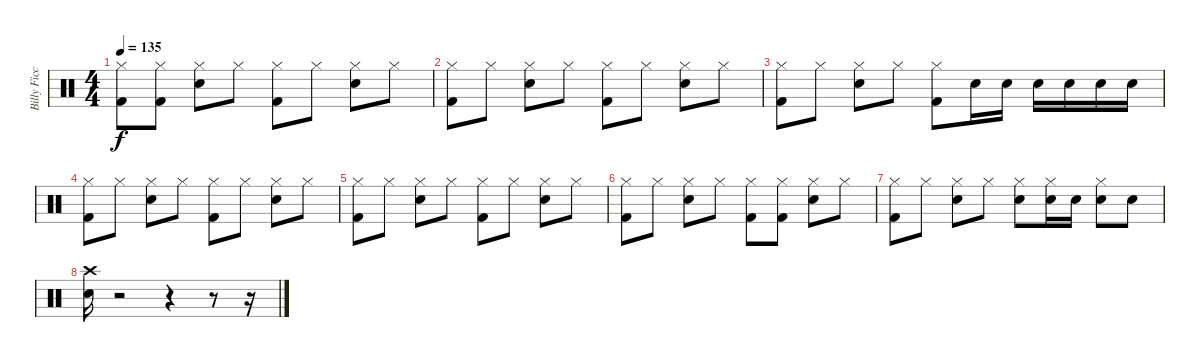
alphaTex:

\track ("Billy Ficca" "Billy Ficc") {instrument percussion}
\staff {score}
\articulation defaults
\ts (4 4)
\tempo 135
\clef neutral
\ks c
("Kick (hit) 2" "Hi-Hat (closed)").8{dy f} ("Hi-Hat (closed)" "Kick (hit) 2").8 ("Electric Snare (hit)" "Hi-Hat (closed)").8 "Hi-Hat (closed)".8 ("Kick (hit) 2" "Hi-Hat (closed)").8 "Hi-Hat (closed)".8 ("Electric Snare (hit)" "Hi-Hat (closed)").8 "Hi-Hat (closed)".8 |
("Kick (hit) 2" "Hi-Hat (closed)").8 "Hi-Hat (closed)".8 ("Electric Snare (hit)" "Hi-Hat (closed)").8 "Hi-Hat (closed)".8 ("Kick (hit) 2" "Hi-Hat (closed)").8 "Hi-Hat (closed)".8 ("Electric Snare (hit)" "Hi-Hat (closed)").8 "Hi-Hat (closed)".8 |
("Kick (hit) 2" "Hi-Hat (closed)").8 "Hi-Hat (closed)".8 ("Electric Snare (hit)" "Hi-Hat (closed)").8 "Hi-Hat (closed)".8 ("Hi-Hat (closed)" "Kick (hit) 2").8 "Electric Snare (hit)".16 "Electric Snare (hit)".16 "Electric Snare (hit)".16 "Electric Snare (hit)".16 "Electric Snare (hit)".16 "Electric Snare (hit)".16 |
("Kick (hit) 2" "Hi-Hat (closed)").8 "Hi-Hat (closed)".8 ("Electric Snare (hit)" "Hi-Hat (closed)").8 "Hi-Hat (closed)".8 ("Kick (hit) 2" "Hi-Hat (closed)").8 "Hi-Hat (closed)".8 ("Electric Snare (hit)" "Hi-Hat (closed)").8 "Hi-Hat (closed)".8 |
("Kick (hit) 2" "Hi-Hat (closed)").8 "Hi-Hat (closed)".8 ("Electric Snare (hit)" "Hi-Hat (closed)").8 "Hi-Hat (closed)".8 ("Kick (hit) 2" "Hi-Hat (closed)").8 "Hi-Hat (closed)".8 ("Electric Snare (hit)" "Hi-Hat (closed)").8 "Hi-Hat (closed)".8 |
("Kick (hit) 2" "Hi-Hat (closed)").8 "Hi-Hat (closed)".8 ("Electric Snare (hit)" "Hi-Hat (closed)").8 "Hi-Hat (closed)".8 ("Kick (hit) 2" "Hi-Hat (closed)").8 ("Hi-Hat (closed)" "Kick (hit) 2").8 ("Electric Snare (hit)" "Hi-Hat (closed)").8 "Hi-Hat (closed)".8 |
("Kick (hit) 2" "Hi-Hat (closed)").8 "Hi-Hat (closed)".8 ("Electric Snare (hit)" "Hi-Hat (closed)").8 "Hi-Hat (closed)".8 ("Hi-Hat (closed)" "Electric Snare (hit)").8 ("Hi-Hat (closed)" "Electric Snare (hit)").16 "Electric Snare (hit)".16 ("Hi-Hat (closed)" "Electric Snare (hit)").8 "Electric Snare (hit)".8 |
("Electric Snare (hit)" "Crash high (hit)").16 r.2 r.4 r.8 r.16
